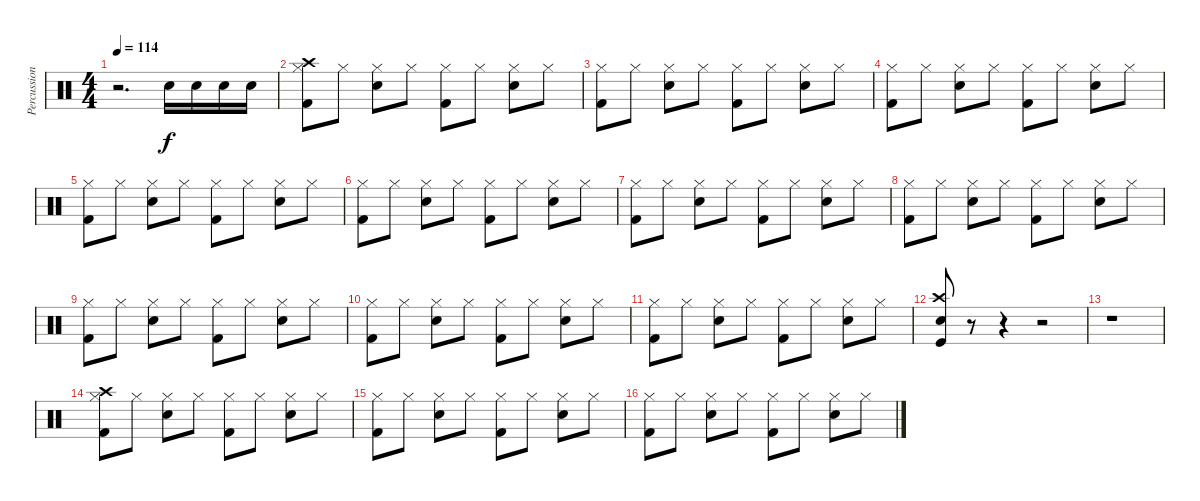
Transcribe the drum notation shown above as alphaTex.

\track ("Percussion" "Percussion") {instrument percussion}
\staff {score}
\articulation defaults
\ts (4 4)
\tempo 114
\clef neutral
\ks c
r.2{d dy f} "Snare (hit) 2".16 "Snare (hit) 2".16 "Snare (hit) 2".16 "Snare (hit) 2".16 |
("Crash high (hit)" "Hi-Hat (closed)" "Kick (hit) 2").8 "Hi-Hat (closed)".8 ("Hi-Hat (closed)" "Snare (hit) 2").8 "Hi-Hat (closed)".8 ("Hi-Hat (closed)" "Kick (hit) 2").8 "Hi-Hat (closed)".8 ("Hi-Hat (closed)" "Snare (hit) 2").8 "Hi-Hat (closed)".8 |
("Hi-Hat (closed)" "Kick (hit) 2").8 "Hi-Hat (closed)".8 ("Hi-Hat (closed)" "Snare (hit) 2").8 "Hi-Hat (closed)".8 ("Hi-Hat (closed)" "Kick (hit) 2").8 "Hi-Hat (closed)".8 ("Hi-Hat (closed)" "Snare (hit) 2").8 "Hi-Hat (closed)".8 |
("Hi-Hat (closed)" "Kick (hit) 2").8 "Hi-Hat (closed)".8 ("Hi-Hat (closed)" "Snare (hit) 2").8 "Hi-Hat (closed)".8 ("Hi-Hat (closed)" "Kick (hit) 2").8 "Hi-Hat (closed)".8 ("Hi-Hat (closed)" "Snare (hit) 2").8 "Hi-Hat (closed)".8 |
("Hi-Hat (closed)" "Kick (hit) 2").8 "Hi-Hat (closed)".8 ("Hi-Hat (closed)" "Snare (hit) 2").8 "Hi-Hat (closed)".8 ("Hi-Hat (closed)" "Kick (hit) 2").8 "Hi-Hat (closed)".8 ("Hi-Hat (closed)" "Snare (hit) 2").8 "Hi-Hat (closed)".8 |
("Hi-Hat (closed)" "Kick (hit) 2").8 "Hi-Hat (closed)".8 ("Hi-Hat (closed)" "Snare (hit) 2").8 "Hi-Hat (closed)".8 ("Hi-Hat (closed)" "Kick (hit) 2").8 "Hi-Hat (closed)".8 ("Hi-Hat (closed)" "Snare (hit) 2").8 "Hi-Hat (closed)".8 |
("Hi-Hat (closed)" "Kick (hit) 2").8 "Hi-Hat (closed)".8 ("Hi-Hat (closed)" "Snare (hit) 2").8 "Hi-Hat (closed)".8 ("Hi-Hat (closed)" "Kick (hit) 2").8 "Hi-Hat (closed)".8 ("Hi-Hat (closed)" "Snare (hit) 2").8 "Hi-Hat (closed)".8 |
("Hi-Hat (closed)" "Kick (hit) 2").8 "Hi-Hat (closed)".8 ("Hi-Hat (closed)" "Snare (hit) 2").8 "Hi-Hat (closed)".8 ("Hi-Hat (closed)" "Kick (hit) 2").8 "Hi-Hat (closed)".8 ("Hi-Hat (closed)" "Snare (hit) 2").8 "Hi-Hat (closed)".8 |
("Hi-Hat (closed)" "Kick (hit) 2").8 "Hi-Hat (closed)".8 ("Hi-Hat (closed)" "Snare (hit) 2").8 "Hi-Hat (closed)".8 ("Hi-Hat (closed)" "Kick (hit) 2").8 "Hi-Hat (closed)".8 ("Hi-Hat (closed)" "Snare (hit) 2").8 "Hi-Hat (closed)".8 |
("Hi-Hat (closed)" "Kick (hit) 2").8 "Hi-Hat (closed)".8 ("Hi-Hat (closed)" "Snare (hit) 2").8 "Hi-Hat (closed)".8 ("Hi-Hat (closed)" "Kick (hit) 2").8 "Hi-Hat (closed)".8 ("Hi-Hat (closed)" "Snare (hit) 2").8 "Hi-Hat (closed)".8 |
("Hi-Hat (closed)" "Kick (hit) 2").8 "Hi-Hat (closed)".8 ("Hi-Hat (closed)" "Snare (hit) 2").8 "Hi-Hat (closed)".8 ("Hi-Hat (closed)" "Kick (hit) 2").8 "Hi-Hat (closed)".8 ("Hi-Hat (closed)" "Snare (hit) 2").8 "Hi-Hat (closed)".8 |
("Crash high (hit)" "Snare (hit) 2" "Kick (hit)").8 r.8 r.4 r.2 |
r.1 |
("Crash high (hit)" "Hi-Hat (closed)" "Kick (hit) 2").8 "Hi-Hat (closed)".8 ("Hi-Hat (closed)" "Snare (hit) 2").8 "Hi-Hat (closed)".8 ("Hi-Hat (closed)" "Kick (hit) 2").8 "Hi-Hat (closed)".8 ("Hi-Hat (closed)" "Snare (hit) 2").8 "Hi-Hat (closed)".8 |
("Hi-Hat (closed)" "Kick (hit) 2").8 "Hi-Hat (closed)".8 ("Hi-Hat (closed)" "Snare (hit) 2").8 "Hi-Hat (closed)".8 ("Hi-Hat (closed)" "Kick (hit) 2").8 "Hi-Hat (closed)".8 ("Hi-Hat (closed)" "Snare (hit) 2").8 "Hi-Hat (closed)".8 |
("Hi-Hat (closed)" "Kick (hit) 2").8 "Hi-Hat (closed)".8 ("Hi-Hat (closed)" "Snare (hit) 2").8 "Hi-Hat (closed)".8 ("Hi-Hat (closed)" "Kick (hit) 2").8 "Hi-Hat (closed)".8 ("Hi-Hat (closed)" "Snare (hit) 2").8 "Hi-Hat (closed)".8
